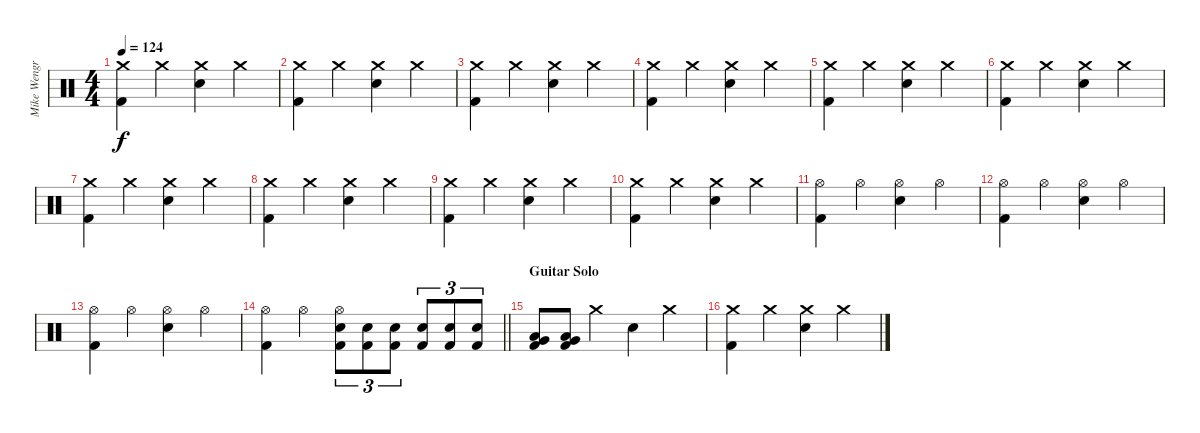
\track ("Mike Wengren" "Mike Wengr") {instrument percussion}
\staff {score}
\articulation defaults
\ts (4 4)
\tempo 124
\clef neutral
\ks c
("Kick (hit) 2" "Crash medium (hit)").4{dy f} "Crash medium (hit)".4 ("Electric Snare (hit)" "Crash medium (hit)").4 "Crash medium (hit)".4 |
("Kick (hit) 2" "Crash medium (hit)").4 "Crash medium (hit)".4 ("Electric Snare (hit)" "Crash medium (hit)").4 "Crash medium (hit)".4 |
("Kick (hit) 2" "Crash medium (hit)").4 "Crash medium (hit)".4 ("Electric Snare (hit)" "Crash medium (hit)").4 "Crash medium (hit)".4 |
("Kick (hit) 2" "Crash medium (hit)").4 "Crash medium (hit)".4 ("Electric Snare (hit)" "Crash medium (hit)").4 "Crash medium (hit)".4 |
("Kick (hit) 2" "Crash medium (hit)").4 "Crash medium (hit)".4 ("Electric Snare (hit)" "Crash medium (hit)").4 "Crash medium (hit)".4 |
("Kick (hit) 2" "Crash medium (hit)").4 "Crash medium (hit)".4 ("Electric Snare (hit)" "Crash medium (hit)").4 "Crash medium (hit)".4 |
("Kick (hit) 2" "Crash medium (hit)").4 "Crash medium (hit)".4 ("Electric Snare (hit)" "Crash medium (hit)").4 "Crash medium (hit)".4 |
("Kick (hit) 2" "Crash medium (hit)").4 "Crash medium (hit)".4 ("Electric Snare (hit)" "Crash medium (hit)").4 "Crash medium (hit)".4 |
("Kick (hit) 2" "Crash medium (hit)").4 "Crash medium (hit)".4 ("Electric Snare (hit)" "Crash medium (hit)").4 "Crash medium (hit)".4 |
("Kick (hit) 2" "Crash medium (hit)").4 "Crash medium (hit)".4 ("Electric Snare (hit)" "Crash medium (hit)").4 "Crash medium (hit)".4 |
("Kick (hit) 2" "Hi-Hat (open)").4 "Hi-Hat (open)".4 ("Electric Snare (hit)" "Hi-Hat (open)").4 "Hi-Hat (open)".4 |
("Kick (hit) 2" "Hi-Hat (open)").4 "Hi-Hat (open)".4 ("Electric Snare (hit)" "Hi-Hat (open)").4 "Hi-Hat (open)".4 |
("Kick (hit) 2" "Hi-Hat (open)").4 "Hi-Hat (open)".4 ("Electric Snare (hit)" "Hi-Hat (open)").4 "Hi-Hat (open)".4 |
\barLineRight lightlight
("Kick (hit) 2" "Hi-Hat (open)").4 "Hi-Hat (open)".4 ("Kick (hit) 2" "Electric Snare (hit)" "Hi-Hat (open)").8{tu (3 2)} ("Kick (hit) 2" "Electric Snare (hit)").8{tu (3 2)} ("Kick (hit) 2" "Electric Snare (hit)").8{tu (3 2)} ("Kick (hit) 2" "Electric Snare (hit)").8{tu (3 2)} ("Kick (hit) 2" "Electric Snare (hit)").8{tu (3 2)} ("Kick (hit) 2" "Electric Snare (hit)").8{tu (3 2)} |
\section ("" "Guitar Solo")
("Kick (hit) 2" "Very Low Tom (hit)" "Low Tom (hit)").8 ("Kick (hit) 2" "Very Low Tom (hit)" "Low Tom (hit)").8 "Crash medium (hit)".4 "Electric Snare (hit)".4 "Crash medium (hit)".4 |
("Kick (hit) 2" "Crash medium (hit)").4 "Crash medium (hit)".4 ("Electric Snare (hit)" "Crash medium (hit)").4 "Crash medium (hit)".4
